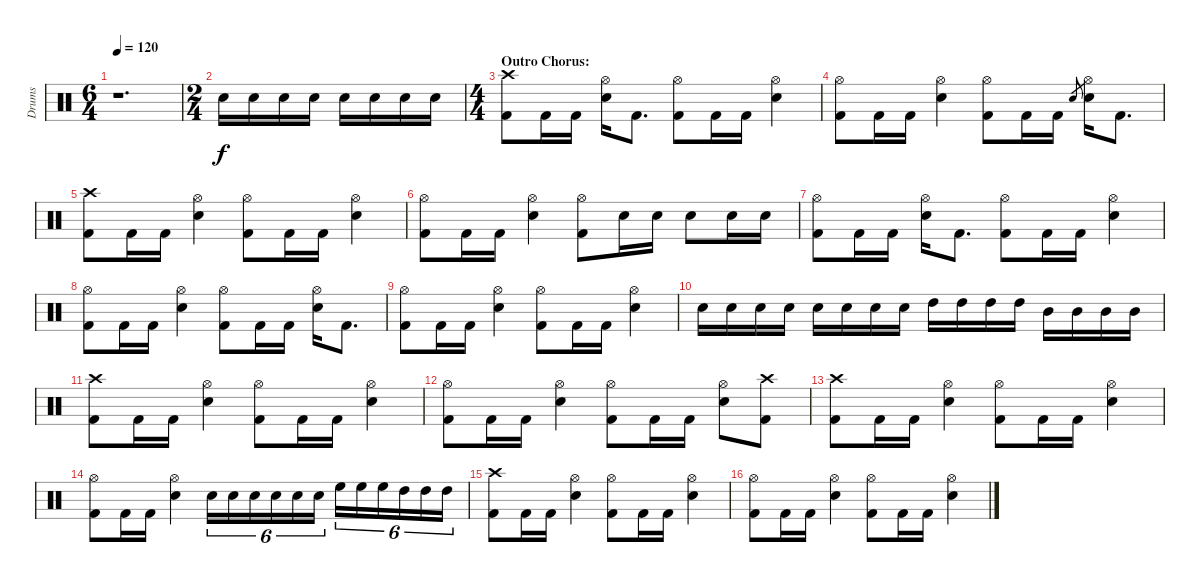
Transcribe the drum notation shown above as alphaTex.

\track ("Drums" "Drums") {instrument percussion}
\staff {score}
\articulation defaults
\ts (6 4)
\tempo 120
\clef neutral
\ks c
r.1{d dy f} |
\ts (2 4)
"Electric Snare (hit)".16 "Electric Snare (hit)".16 "Electric Snare (hit)".16 "Electric Snare (hit)".16 "Electric Snare (hit)".16 "Electric Snare (hit)".16 "Electric Snare (hit)".16 "Electric Snare (hit)".16 |
\ts (4 4)
\section ("" "Outro Chorus:")
("Crash high (hit)" "Kick (hit) 2").8 "Kick (hit) 2".16 "Kick (hit) 2".16 ("Hi-Hat (open)" "Electric Snare (hit)").16 "Kick (hit) 2".8{d} ("Hi-Hat (open)" "Kick (hit) 2").8 "Kick (hit) 2".16 "Kick (hit) 2".16 ("Hi-Hat (open)" "Electric Snare (hit)").4 |
("Hi-Hat (open)" "Kick (hit) 2").8 "Kick (hit) 2".16 "Kick (hit) 2".16 ("Hi-Hat (open)" "Electric Snare (hit)").4 ("Hi-Hat (open)" "Kick (hit) 2").8 "Kick (hit) 2".16 "Kick (hit) 2".16 "Electric Snare (hit)".8{gr} ("Hi-Hat (open)" "Electric Snare (hit)").16 "Kick (hit) 2".8{d} |
("Crash high (hit)" "Kick (hit) 2").8 "Kick (hit) 2".16 "Kick (hit) 2".16 ("Hi-Hat (open)" "Electric Snare (hit)").4 ("Hi-Hat (open)" "Kick (hit) 2").8 "Kick (hit) 2".16 "Kick (hit) 2".16 ("Hi-Hat (open)" "Electric Snare (hit)").4 |
("Hi-Hat (open)" "Kick (hit) 2").8 "Kick (hit) 2".16 "Kick (hit) 2".16 ("Hi-Hat (open)" "Electric Snare (hit)").4 ("Hi-Hat (open)" "Kick (hit) 2").8 "Electric Snare (hit)".16 "Electric Snare (hit)".16 "Electric Snare (hit)".8 "Electric Snare (hit)".16 "Electric Snare (hit)".16 |
("Hi-Hat (open)" "Kick (hit) 2").8 "Kick (hit) 2".16 "Kick (hit) 2".16 ("Hi-Hat (open)" "Electric Snare (hit)").16 "Kick (hit) 2".8{d} ("Hi-Hat (open)" "Kick (hit) 2").8 "Kick (hit) 2".16 "Kick (hit) 2".16 ("Hi-Hat (open)" "Electric Snare (hit)").4 |
("Hi-Hat (open)" "Kick (hit) 2").8 "Kick (hit) 2".16 "Kick (hit) 2".16 ("Hi-Hat (open)" "Electric Snare (hit)").4 ("Hi-Hat (open)" "Kick (hit) 2").8 "Kick (hit) 2".16 "Kick (hit) 2".16 ("Hi-Hat (open)" "Electric Snare (hit)").16 "Kick (hit) 2".8{d} |
("Hi-Hat (open)" "Kick (hit) 2").8 "Kick (hit) 2".16 "Kick (hit) 2".16 ("Hi-Hat (open)" "Electric Snare (hit)").4 ("Hi-Hat (open)" "Kick (hit) 2").8 "Kick (hit) 2".16 "Kick (hit) 2".16 ("Hi-Hat (open)" "Electric Snare (hit)").4 |
"Electric Snare (hit)".16 "Electric Snare (hit)".16 "Electric Snare (hit)".16 "Electric Snare (hit)".16 "Electric Snare (hit)".16 "Electric Snare (hit)".16 "Electric Snare (hit)".16 "Electric Snare (hit)".16 "High Tom (hit)".16 "High Tom (hit)".16 "High Tom (hit)".16 "High Tom (hit)".16 "Mid Tom (hit)".16 "Mid Tom (hit)".16 "Mid Tom (hit)".16 "Mid Tom (hit)".16 |
("Crash high (hit)" "Kick (hit) 2").8 "Kick (hit) 2".16 "Kick (hit) 2".16 ("Hi-Hat (open)" "Electric Snare (hit)").4 ("Hi-Hat (open)" "Kick (hit) 2").8 "Kick (hit) 2".16 "Kick (hit) 2".16 ("Hi-Hat (open)" "Electric Snare (hit)").4 |
("Hi-Hat (open)" "Kick (hit) 2").8 "Kick (hit) 2".16 "Kick (hit) 2".16 ("Hi-Hat (open)" "Electric Snare (hit)").4 ("Hi-Hat (open)" "Kick (hit) 2").8 "Kick (hit) 2".16 "Kick (hit) 2".16 ("Hi-Hat (open)" "Electric Snare (hit)").8 ("Crash high (hit)" "Kick (hit) 2").8 |
("Crash high (hit)" "Kick (hit) 2").8 "Kick (hit) 2".16 "Kick (hit) 2".16 ("Hi-Hat (open)" "Electric Snare (hit)").4 ("Hi-Hat (open)" "Kick (hit) 2").8 "Kick (hit) 2".16 "Kick (hit) 2".16 ("Hi-Hat (open)" "Electric Snare (hit)").4 |
("Hi-Hat (open)" "Kick (hit) 2").8 "Kick (hit) 2".16 "Kick (hit) 2".16 ("Hi-Hat (open)" "Electric Snare (hit)").4 "Electric Snare (hit)".16{tu (6 4)} "Electric Snare (hit)".16{tu (6 4)} "Electric Snare (hit)".16{tu (6 4)} "Electric Snare (hit)".16{tu (6 4)} "Electric Snare (hit)".16{tu (6 4)} "Electric Snare (hit)".16{tu (6 4)} "High Floor Tom (hit)".16{tu (6 4)} "High Floor Tom (hit)".16{tu (6 4)} "High Floor Tom (hit)".16{tu (6 4)} "High Tom (hit)".16{tu (6 4)} "High Tom (hit)".16{tu (6 4)} "High Tom (hit)".16{tu (6 4)} |
("Crash high (hit)" "Kick (hit) 2").8 "Kick (hit) 2".16 "Kick (hit) 2".16 ("Hi-Hat (open)" "Electric Snare (hit)").4 ("Hi-Hat (open)" "Kick (hit) 2").8 "Kick (hit) 2".16 "Kick (hit) 2".16 ("Hi-Hat (open)" "Electric Snare (hit)").4 |
("Hi-Hat (open)" "Kick (hit) 2").8 "Kick (hit) 2".16 "Kick (hit) 2".16 ("Hi-Hat (open)" "Electric Snare (hit)").4 ("Hi-Hat (open)" "Kick (hit) 2").8 "Kick (hit) 2".16 "Kick (hit) 2".16 ("Hi-Hat (open)" "Electric Snare (hit)").4
